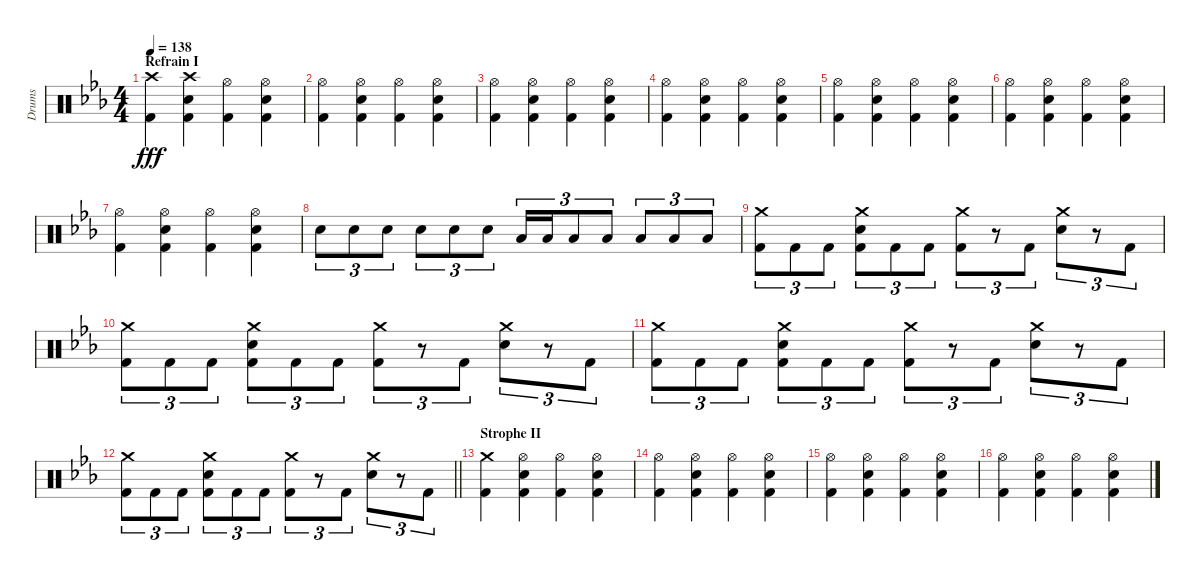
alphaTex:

\track ("Drums" "Drums") {instrument percussion}
\staff {score}
\articulation defaults
\ts (4 4)
\section ("" "Refrain I")
\tempo 138
\clef neutral
\ks eb
("Crash high (hit)" "Kick (hit) 2").4{dy fff} ("Crash high (hit)" "Snare (hit) 2" "Kick (hit) 2").4 ("Hi-Hat (open)" "Kick (hit) 2").4 ("Hi-Hat (open)" "Snare (hit) 2" "Kick (hit) 2").4 |
("Hi-Hat (open)" "Kick (hit) 2").4 ("Hi-Hat (open)" "Snare (hit) 2" "Kick (hit) 2").4 ("Hi-Hat (open)" "Kick (hit) 2").4 ("Hi-Hat (open)" "Snare (hit) 2" "Kick (hit) 2").4 |
("Hi-Hat (open)" "Kick (hit) 2").4 ("Hi-Hat (open)" "Snare (hit) 2" "Kick (hit) 2").4 ("Hi-Hat (open)" "Kick (hit) 2").4 ("Hi-Hat (open)" "Snare (hit) 2" "Kick (hit) 2").4 |
("Hi-Hat (open)" "Kick (hit) 2").4 ("Hi-Hat (open)" "Snare (hit) 2" "Kick (hit) 2").4 ("Hi-Hat (open)" "Kick (hit) 2").4 ("Hi-Hat (open)" "Snare (hit) 2" "Kick (hit) 2").4 |
("Hi-Hat (open)" "Kick (hit) 2").4 ("Hi-Hat (open)" "Snare (hit) 2" "Kick (hit) 2").4 ("Hi-Hat (open)" "Kick (hit) 2").4 ("Hi-Hat (open)" "Snare (hit) 2" "Kick (hit) 2").4 |
("Hi-Hat (open)" "Kick (hit) 2").4 ("Hi-Hat (open)" "Snare (hit) 2" "Kick (hit) 2").4 ("Hi-Hat (open)" "Kick (hit) 2").4 ("Hi-Hat (open)" "Snare (hit) 2" "Kick (hit) 2").4 |
("Hi-Hat (open)" "Kick (hit) 2").4 ("Hi-Hat (open)" "Snare (hit) 2" "Kick (hit) 2").4 ("Hi-Hat (open)" "Kick (hit) 2").4 ("Hi-Hat (open)" "Snare (hit) 2" "Kick (hit) 2").4 |
"Snare (hit) 2".8{tu (3 2)} "Snare (hit) 2".8{tu (3 2)} "Snare (hit) 2".8{tu (3 2)} "Snare (hit) 2".8{tu (3 2)} "Snare (hit) 2".8{tu (3 2)} "Snare (hit) 2".8{tu (3 2)} "Low Tom (hit)".16{tu (3 2)} "Low Tom (hit)".16{tu (3 2)} "Low Tom (hit)".8{tu (3 2)} "Low Tom (hit)".8{tu (3 2)} "Low Tom (hit)".8{tu (3 2)} "Low Tom (hit)".8{tu (3 2)} "Low Tom (hit)".8{tu (3 2)} |
("Crash medium (hit)" "Kick (hit) 2").8{tu (3 2)} "Kick (hit) 2".8{tu (3 2)} "Kick (hit) 2".8{tu (3 2)} ("Crash medium (hit)" "Snare (hit) 2" "Kick (hit) 2").8{tu (3 2)} "Kick (hit) 2".8{tu (3 2)} "Kick (hit) 2".8{tu (3 2)} ("Crash medium (hit)" "Kick (hit) 2").8{tu (3 2)} r.8{tu (3 2)} "Kick (hit) 2".8{tu (3 2)} ("Crash medium (hit)" "Snare (hit) 2").8{tu (3 2)} r.8{tu (3 2)} "Kick (hit) 2".8{tu (3 2)} |
("Crash medium (hit)" "Kick (hit) 2").8{tu (3 2)} "Kick (hit) 2".8{tu (3 2)} "Kick (hit) 2".8{tu (3 2)} ("Crash medium (hit)" "Snare (hit) 2" "Kick (hit) 2").8{tu (3 2)} "Kick (hit) 2".8{tu (3 2)} "Kick (hit) 2".8{tu (3 2)} ("Crash medium (hit)" "Kick (hit) 2").8{tu (3 2)} r.8{tu (3 2)} "Kick (hit) 2".8{tu (3 2)} ("Crash medium (hit)" "Snare (hit) 2").8{tu (3 2)} r.8{tu (3 2)} "Kick (hit) 2".8{tu (3 2)} |
("Crash medium (hit)" "Kick (hit) 2").8{tu (3 2)} "Kick (hit) 2".8{tu (3 2)} "Kick (hit) 2".8{tu (3 2)} ("Crash medium (hit)" "Snare (hit) 2" "Kick (hit) 2").8{tu (3 2)} "Kick (hit) 2".8{tu (3 2)} "Kick (hit) 2".8{tu (3 2)} ("Crash medium (hit)" "Kick (hit) 2").8{tu (3 2)} r.8{tu (3 2)} "Kick (hit) 2".8{tu (3 2)} ("Crash medium (hit)" "Snare (hit) 2").8{tu (3 2)} r.8{tu (3 2)} "Kick (hit) 2".8{tu (3 2)} |
\barLineRight lightlight
("Crash medium (hit)" "Kick (hit) 2").8{tu (3 2)} "Kick (hit) 2".8{tu (3 2)} "Kick (hit) 2".8{tu (3 2)} ("Crash medium (hit)" "Snare (hit) 2" "Kick (hit) 2").8{tu (3 2)} "Kick (hit) 2".8{tu (3 2)} "Kick (hit) 2".8{tu (3 2)} ("Crash medium (hit)" "Kick (hit) 2").8{tu (3 2)} r.8{tu (3 2)} "Kick (hit) 2".8{tu (3 2)} ("Crash medium (hit)" "Snare (hit) 2").8{tu (3 2)} r.8{tu (3 2)} "Kick (hit) 2".8{tu (3 2)} |
\section ("" "Strophe II")
("Crash medium (hit)" "Kick (hit) 2").4 ("Hi-Hat (open)" "Snare (hit) 2" "Kick (hit) 2").4 ("Hi-Hat (open)" "Kick (hit) 2").4 ("Hi-Hat (open)" "Snare (hit) 2" "Kick (hit) 2").4 |
("Hi-Hat (open)" "Kick (hit) 2").4 ("Hi-Hat (open)" "Snare (hit) 2" "Kick (hit) 2").4 ("Hi-Hat (open)" "Kick (hit) 2").4 ("Hi-Hat (open)" "Snare (hit) 2" "Kick (hit) 2").4 |
("Hi-Hat (open)" "Kick (hit) 2").4 ("Hi-Hat (open)" "Snare (hit) 2" "Kick (hit) 2").4 ("Hi-Hat (open)" "Kick (hit) 2").4 ("Hi-Hat (open)" "Snare (hit) 2" "Kick (hit) 2").4 |
("Hi-Hat (open)" "Kick (hit) 2").4 ("Hi-Hat (open)" "Snare (hit) 2" "Kick (hit) 2").4 ("Hi-Hat (open)" "Kick (hit) 2").4 ("Hi-Hat (open)" "Snare (hit) 2" "Kick (hit) 2").4
